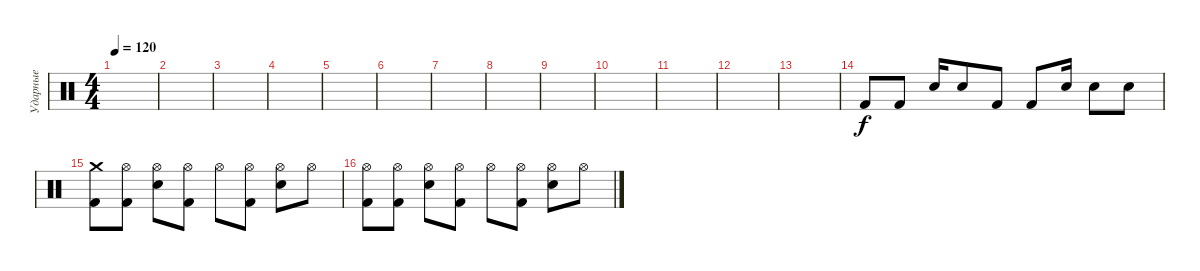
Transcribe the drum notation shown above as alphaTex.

\track ("Ударные" "Ударные") {instrument percussion}
\staff {score}
\articulation defaults
\ts (4 4)
\tempo 120
\clef neutral
\ks c
|
|
|
|
|
|
|
|
|
|
|
|
|
"Kick (hit) 2".8 "Kick (hit) 2".8 "Snare (hit) 2".16 "Snare (hit) 2".8 "Kick (hit) 2".8 "Kick (hit) 2".8 "Snare (hit) 2".16 "Snare (hit) 2".8 "Snare (hit) 2".8 |
("Crash medium (hit)" "Kick (hit) 2").8 ("Hi-Hat (open)" "Kick (hit) 2").8 ("Hi-Hat (open)" "Snare (hit) 2").8 ("Hi-Hat (open)" "Kick (hit) 2").8 "Hi-Hat (open)".8 ("Hi-Hat (open)" "Kick (hit) 2").8 ("Hi-Hat (open)" "Snare (hit) 2").8 "Hi-Hat (open)".8 |
("Hi-Hat (open)" "Kick (hit) 2").8 ("Hi-Hat (open)" "Kick (hit) 2").8 ("Hi-Hat (open)" "Snare (hit) 2").8 ("Hi-Hat (open)" "Kick (hit) 2").8 "Hi-Hat (open)".8 ("Hi-Hat (open)" "Kick (hit) 2").8 ("Hi-Hat (open)" "Snare (hit) 2").8 "Hi-Hat (open)".8
